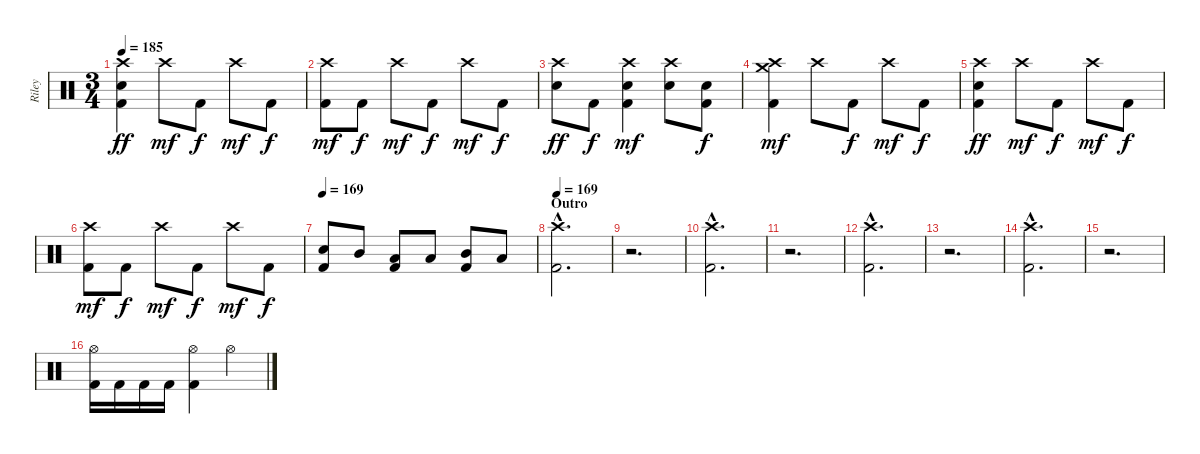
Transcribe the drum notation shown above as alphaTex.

\track ("Riley" "Riley") {instrument percussion}
\staff {score}
\articulation defaults
\ts (3 4)
\tempo 185
\clef neutral
\ks c
("Crash high (hit)" "Electric Snare (hit)" "Kick (hit) 2").4{dy ff} "Crash high (hit)".8{dy mf} "Kick (hit) 2".8{dy f} "Crash high (hit)".8{dy mf} "Kick (hit) 2".8{dy f} |
("Crash high (hit)" "Kick (hit) 2").8{dy mf} "Kick (hit) 2".8{dy f} "Crash high (hit)".8{dy mf} "Kick (hit) 2".8{dy f} "Crash high (hit)".8{dy mf} "Kick (hit) 2".8{dy f} |
("Crash high (hit)" "Electric Snare (hit)").8{dy ff} "Kick (hit) 2".8{dy f} ("Crash high (hit)" "Electric Snare (hit)" "Kick (hit) 2").4{dy mf} ("Crash high (hit)" "Electric Snare (hit)").8 ("Electric Snare (hit)" "Kick (hit) 2").8{dy f} |
("Crash high (hit)" "Crash medium (hit)" "Kick (hit) 2").4{dy mf} "Crash high (hit)".8 "Kick (hit) 2".8{dy f} "Crash high (hit)".8{dy mf} "Kick (hit) 2".8{dy f} |
("Crash high (hit)" "Electric Snare (hit)" "Kick (hit) 2").4{dy ff} "Crash high (hit)".8{dy mf} "Kick (hit) 2".8{dy f} "Crash high (hit)".8{dy mf} "Kick (hit) 2".8{dy f} |
("Crash high (hit)" "Kick (hit) 2").8{dy mf} "Kick (hit) 2".8{dy f} "Crash high (hit)".8{dy mf} "Kick (hit) 2".8{dy f} "Crash high (hit)".8{dy mf} "Kick (hit) 2".8{dy f} |
\tempo 169
("Electric Snare (hit)" "Kick (hit) 2").8 "Mid Tom (hit)".8 ("Low Tom (hit)" "Kick (hit) 2").8 "Low Tom (hit)".8 ("Mid Tom (hit)" "Kick (hit) 2").8 "Low Tom (hit)".8 |
\section ("" "Outro")
\tempo 169
("Crash high (hit)"{hac} "Kick (hit) 2"{hac}).2{d} |
r.2{d} |
("Crash high (hit)"{hac} "Kick (hit) 2"{hac}).2{d} |
r.2{d} |
("Crash high (hit)"{hac} "Kick (hit) 2"{hac}).2{d} |
r.2{d} |
("Crash high (hit)"{hac} "Kick (hit) 2"{hac}).2{d} |
r.2{d} |
("Hi-Hat (open)" "Kick (hit) 2").16 "Kick (hit) 2".16 "Kick (hit) 2".16 "Kick (hit) 2".16 ("Hi-Hat (open)" "Kick (hit) 2").4 "Hi-Hat (open)".4
